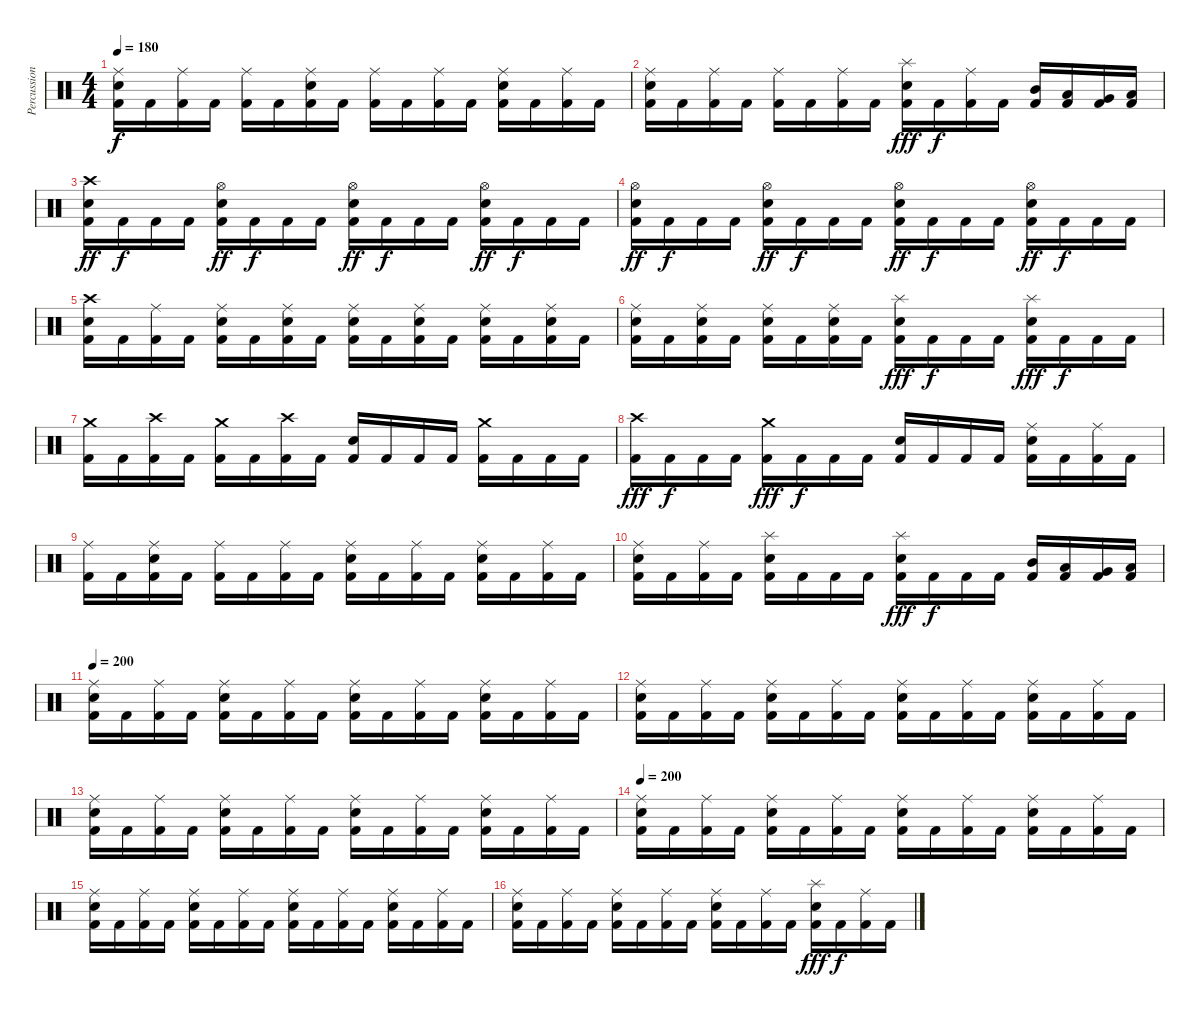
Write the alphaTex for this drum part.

\track ("Percussion" "Percussion") {instrument percussion}
\staff {score}
\articulation defaults
\ts (4 4)
\tempo 180
\clef neutral
\ks c
("Ride (middle)" "Electric Snare (hit)" "Kick (hit) 2").16{dy f} "Kick (hit) 2".16 ("Ride (middle)" "Kick (hit) 2").16 "Kick (hit) 2".16 ("Ride (middle)" "Kick (hit) 2").16 "Kick (hit) 2".16 ("Ride (middle)" "Electric Snare (hit)" "Kick (hit) 2").16 "Kick (hit) 2".16 ("Ride (middle)" "Kick (hit) 2").16 "Kick (hit) 2".16 ("Ride (middle)" "Kick (hit) 2").16 "Kick (hit) 2".16 ("Ride (middle)" "Electric Snare (hit)" "Kick (hit) 2").16 "Kick (hit) 2".16 ("Ride (middle)" "Kick (hit) 2").16 "Kick (hit) 2".16 |
("Ride (middle)" "Electric Snare (hit)" "Kick (hit) 2").16 "Kick (hit) 2".16 ("Ride (middle)" "Kick (hit) 2").16 "Kick (hit) 2".16 ("Ride (middle)" "Kick (hit) 2").16 "Kick (hit) 2".16 ("Ride (middle)" "Kick (hit) 2").16 "Kick (hit) 2".16 ("Splash (hit)" "Electric Snare (hit)" "Kick (hit) 2").16{dy fff} "Kick (hit) 2".16{dy f} ("Ride (middle)" "Kick (hit) 2").16 "Kick (hit) 2".16 ("Mid Tom (hit)" "Kick (hit) 2").16 ("Low Tom (hit)" "Kick (hit) 2").16 ("Very Low Tom (hit)" "Kick (hit) 2").16 ("Low Floor Tom (hit)" "Kick (hit) 2").16 |
("Crash high (hit)" "Electric Snare (hit)" "Kick (hit) 2").16{dy ff} "Kick (hit) 2".16{dy f} "Kick (hit) 2".16 "Kick (hit) 2".16 ("Hi-Hat (open)" "Electric Snare (hit)" "Kick (hit) 2").16{dy ff} "Kick (hit) 2".16{dy f} "Kick (hit) 2".16 "Kick (hit) 2".16 ("Hi-Hat (open)" "Electric Snare (hit)" "Kick (hit) 2").16{dy ff} "Kick (hit) 2".16{dy f} "Kick (hit) 2".16 "Kick (hit) 2".16 ("Hi-Hat (open)" "Electric Snare (hit)" "Kick (hit) 2").16{dy ff} "Kick (hit) 2".16{dy f} "Kick (hit) 2".16 "Kick (hit) 2".16 |
("Hi-Hat (open)" "Electric Snare (hit)" "Kick (hit) 2").16{dy ff} "Kick (hit) 2".16{dy f} "Kick (hit) 2".16 "Kick (hit) 2".16 ("Hi-Hat (open)" "Electric Snare (hit)" "Kick (hit) 2").16{dy ff} "Kick (hit) 2".16{dy f} "Kick (hit) 2".16 "Kick (hit) 2".16 ("Hi-Hat (open)" "Electric Snare (hit)" "Kick (hit) 2").16{dy ff} "Kick (hit) 2".16{dy f} "Kick (hit) 2".16 "Kick (hit) 2".16 ("Hi-Hat (open)" "Electric Snare (hit)" "Kick (hit) 2").16{dy ff} "Kick (hit) 2".16{dy f} "Kick (hit) 2".16 "Kick (hit) 2".16 |
("Crash high (hit)" "Electric Snare (hit)" "Kick (hit) 2").16 "Kick (hit) 2".16 ("Ride (middle)" "Kick (hit) 2").16 "Kick (hit) 2".16 ("Ride (middle)" "Electric Snare (hit)" "Kick (hit) 2").16 "Kick (hit) 2".16 ("Ride (middle)" "Electric Snare (hit)" "Kick (hit) 2").16 "Kick (hit) 2".16 ("Ride (middle)" "Electric Snare (hit)" "Kick (hit) 2").16 "Kick (hit) 2".16 ("Ride (middle)" "Electric Snare (hit)" "Kick (hit) 2").16 "Kick (hit) 2".16 ("Ride (middle)" "Electric Snare (hit)" "Kick (hit) 2").16 "Kick (hit) 2".16 ("Ride (middle)" "Electric Snare (hit)" "Kick (hit) 2").16 "Kick (hit) 2".16 |
("Ride (middle)" "Electric Snare (hit)" "Kick (hit) 2").16 "Kick (hit) 2".16 ("Ride (middle)" "Electric Snare (hit)" "Kick (hit) 2").16 "Kick (hit) 2".16 ("Ride (middle)" "Electric Snare (hit)" "Kick (hit) 2").16 "Kick (hit) 2".16 ("Ride (middle)" "Electric Snare (hit)" "Kick (hit) 2").16 "Kick (hit) 2".16 ("Splash (hit)" "Electric Snare (hit)" "Kick (hit) 2").16{dy fff} "Kick (hit) 2".16{dy f} "Kick (hit) 2".16 "Kick (hit) 2".16 ("Splash (hit)" "Electric Snare (hit)" "Kick (hit) 2").16{dy fff} "Kick (hit) 2".16{dy f} "Kick (hit) 2".16 "Kick (hit) 2".16 |
("Crash medium (hit)" "Kick (hit) 2").16 "Kick (hit) 2".16 ("Crash high (hit)" "Kick (hit) 2").16 "Kick (hit) 2".16 ("Crash medium (hit)" "Kick (hit) 2").16 "Kick (hit) 2".16 ("Crash high (hit)" "Kick (hit) 2").16 "Kick (hit) 2".16 ("Electric Snare (hit)" "Kick (hit) 2").16 "Kick (hit) 2".16 "Kick (hit) 2".16 "Kick (hit) 2".16 ("Crash medium (hit)" "Kick (hit) 2").16 "Kick (hit) 2".16 "Kick (hit) 2".16 "Kick (hit) 2".16 |
("Crash high (hit)" "Kick (hit) 2").16{dy fff} "Kick (hit) 2".16{dy f} "Kick (hit) 2".16 "Kick (hit) 2".16 ("Crash medium (hit)" "Kick (hit) 2").16{dy fff} "Kick (hit) 2".16{dy f} "Kick (hit) 2".16 "Kick (hit) 2".16 ("Electric Snare (hit)" "Kick (hit) 2").16 "Kick (hit) 2".16 "Kick (hit) 2".16 "Kick (hit) 2".16 ("Ride (middle)" "Electric Snare (hit)" "Kick (hit) 2").16 "Kick (hit) 2".16 ("Ride (middle)" "Kick (hit) 2").16 "Kick (hit) 2".16 |
("Ride (middle)" "Kick (hit) 2").16 "Kick (hit) 2".16 ("Ride (middle)" "Electric Snare (hit)" "Kick (hit) 2").16 "Kick (hit) 2".16 ("Ride (middle)" "Kick (hit) 2").16 "Kick (hit) 2".16 ("Ride (middle)" "Kick (hit) 2").16 "Kick (hit) 2".16 ("Ride (middle)" "Electric Snare (hit)" "Kick (hit) 2").16 "Kick (hit) 2".16 ("Ride (middle)" "Kick (hit) 2").16 "Kick (hit) 2".16 ("Ride (middle)" "Electric Snare (hit)" "Kick (hit) 2").16 "Kick (hit) 2".16 ("Ride (middle)" "Kick (hit) 2").16 "Kick (hit) 2".16 |
("Ride (middle)" "Electric Snare (hit)" "Kick (hit) 2").16 "Kick (hit) 2".16 ("Ride (middle)" "Kick (hit) 2").16 "Kick (hit) 2".16 ("Splash (hit)" "Electric Snare (hit)" "Kick (hit) 2").16 "Kick (hit) 2".16 "Kick (hit) 2".16 "Kick (hit) 2".16 ("Splash (hit)" "Electric Snare (hit)" "Kick (hit) 2").16{dy fff} "Kick (hit) 2".16{dy f} "Kick (hit) 2".16 "Kick (hit) 2".16 ("Mid Tom (hit)" "Kick (hit) 2").16 ("Low Tom (hit)" "Kick (hit) 2").16 ("Very Low Tom (hit)" "Kick (hit) 2").16 ("Low Floor Tom (hit)" "Kick (hit) 2").16 |
\tempo 200
("Ride (middle)" "Electric Snare (hit)" "Kick (hit) 2").16 "Kick (hit) 2".16 ("Ride (middle)" "Kick (hit) 2").16 "Kick (hit) 2".16 ("Ride (middle)" "Electric Snare (hit)" "Kick (hit) 2").16 "Kick (hit) 2".16 ("Ride (middle)" "Kick (hit) 2").16 "Kick (hit) 2".16 ("Ride (middle)" "Electric Snare (hit)" "Kick (hit) 2").16 "Kick (hit) 2".16 ("Ride (middle)" "Kick (hit) 2").16 "Kick (hit) 2".16 ("Ride (middle)" "Electric Snare (hit)" "Kick (hit) 2").16 "Kick (hit) 2".16 ("Ride (middle)" "Kick (hit) 2").16 "Kick (hit) 2".16 |
("Ride (middle)" "Electric Snare (hit)" "Kick (hit) 2").16 "Kick (hit) 2".16 ("Ride (middle)" "Kick (hit) 2").16 "Kick (hit) 2".16 ("Ride (middle)" "Electric Snare (hit)" "Kick (hit) 2").16 "Kick (hit) 2".16 ("Ride (middle)" "Kick (hit) 2").16 "Kick (hit) 2".16 ("Ride (middle)" "Electric Snare (hit)" "Kick (hit) 2").16 "Kick (hit) 2".16 ("Ride (middle)" "Kick (hit) 2").16 "Kick (hit) 2".16 ("Ride (middle)" "Electric Snare (hit)" "Kick (hit) 2").16 "Kick (hit) 2".16 ("Ride (middle)" "Kick (hit) 2").16 "Kick (hit) 2".16 |
("Ride (middle)" "Electric Snare (hit)" "Kick (hit) 2").16 "Kick (hit) 2".16 ("Ride (middle)" "Kick (hit) 2").16 "Kick (hit) 2".16 ("Ride (middle)" "Electric Snare (hit)" "Kick (hit) 2").16 "Kick (hit) 2".16 ("Ride (middle)" "Kick (hit) 2").16 "Kick (hit) 2".16 ("Ride (middle)" "Electric Snare (hit)" "Kick (hit) 2").16 "Kick (hit) 2".16 ("Ride (middle)" "Kick (hit) 2").16 "Kick (hit) 2".16 ("Ride (middle)" "Electric Snare (hit)" "Kick (hit) 2").16 "Kick (hit) 2".16 ("Ride (middle)" "Kick (hit) 2").16 "Kick (hit) 2".16 |
\tempo 200
("Ride (middle)" "Electric Snare (hit)" "Kick (hit) 2").16 "Kick (hit) 2".16 ("Ride (middle)" "Kick (hit) 2").16 "Kick (hit) 2".16 ("Ride (middle)" "Electric Snare (hit)" "Kick (hit) 2").16 "Kick (hit) 2".16 ("Ride (middle)" "Kick (hit) 2").16 "Kick (hit) 2".16 ("Ride (middle)" "Electric Snare (hit)" "Kick (hit) 2").16 "Kick (hit) 2".16 ("Ride (middle)" "Kick (hit) 2").16 "Kick (hit) 2".16 ("Ride (middle)" "Electric Snare (hit)" "Kick (hit) 2").16 "Kick (hit) 2".16 ("Ride (middle)" "Kick (hit) 2").16 "Kick (hit) 2".16 |
("Ride (middle)" "Electric Snare (hit)" "Kick (hit) 2").16 "Kick (hit) 2".16 ("Ride (middle)" "Kick (hit) 2").16 "Kick (hit) 2".16 ("Ride (middle)" "Electric Snare (hit)" "Kick (hit) 2").16 "Kick (hit) 2".16 ("Ride (middle)" "Kick (hit) 2").16 "Kick (hit) 2".16 ("Ride (middle)" "Electric Snare (hit)" "Kick (hit) 2").16 "Kick (hit) 2".16 ("Ride (middle)" "Kick (hit) 2").16 "Kick (hit) 2".16 ("Ride (middle)" "Electric Snare (hit)" "Kick (hit) 2").16 "Kick (hit) 2".16 ("Ride (middle)" "Kick (hit) 2").16 "Kick (hit) 2".16 |
("Ride (middle)" "Electric Snare (hit)" "Kick (hit) 2").16 "Kick (hit) 2".16 ("Ride (middle)" "Kick (hit) 2").16 "Kick (hit) 2".16 ("Ride (middle)" "Electric Snare (hit)" "Kick (hit) 2").16 "Kick (hit) 2".16 ("Ride (middle)" "Kick (hit) 2").16 "Kick (hit) 2".16 ("Ride (middle)" "Electric Snare (hit)" "Kick (hit) 2").16 "Kick (hit) 2".16 ("Ride (middle)" "Kick (hit) 2").16 "Kick (hit) 2".16 ("Splash (hit)" "Electric Snare (hit)" "Kick (hit) 2").16{dy fff} "Kick (hit) 2".16{dy f} ("Ride (middle)" "Kick (hit) 2").16 "Kick (hit) 2".16
